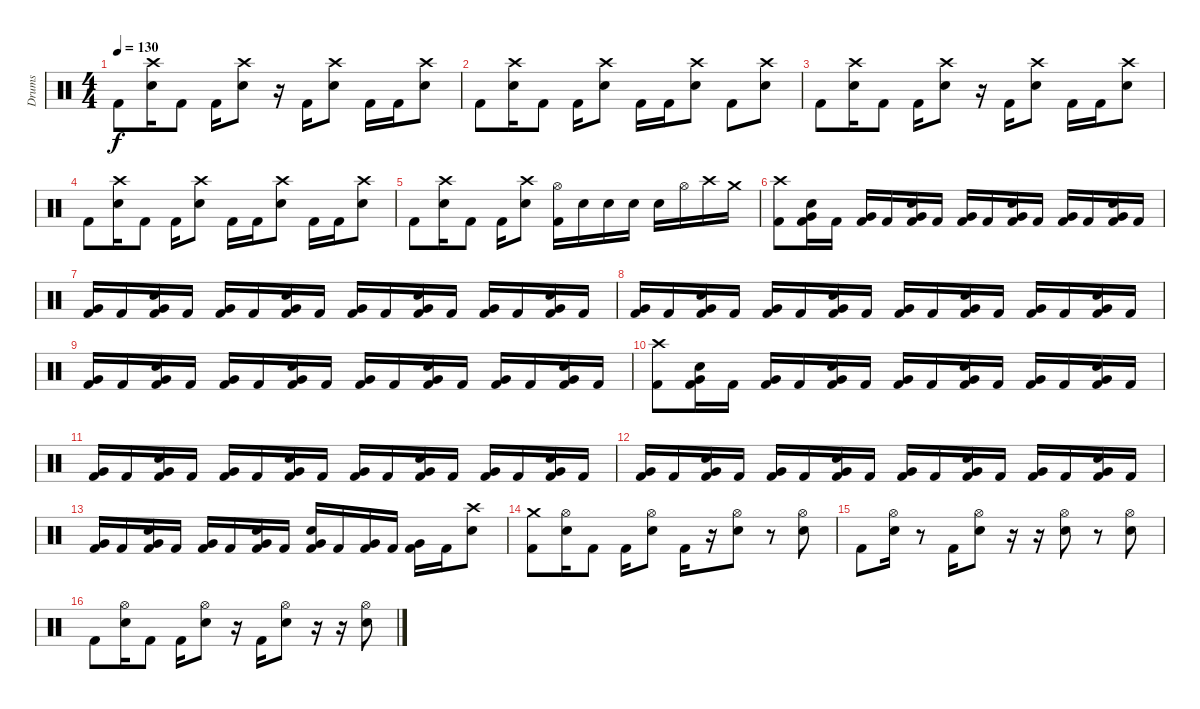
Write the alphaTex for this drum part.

\track ("Drums" "Drums") {instrument percussion}
\staff {score}
\articulation defaults
\ts (4 4)
\tempo 130
\clef neutral
\ks c "Kick (hit) 2".8{dy f}
("Crash high (hit)" "Electric Snare (hit)").16 "Kick (hit) 2".8 "Kick (hit) 2".16 ("Crash high (hit)" "Electric Snare (hit)").8 r.16 "Kick (hit) 2".16 ("Crash high (hit)" "Electric Snare (hit)").8 "Kick (hit) 2".16 "Kick (hit) 2".16 ("Crash high (hit)" "Electric Snare (hit)").8 |
"Kick (hit) 2".8 ("Crash high (hit)" "Electric Snare (hit)").16 "Kick (hit) 2".8 "Kick (hit) 2".16 ("Crash high (hit)" "Electric Snare (hit)").8 "Kick (hit) 2".16 "Kick (hit) 2".16 ("Crash high (hit)" "Electric Snare (hit)").8 "Kick (hit) 2".8 ("Crash high (hit)" "Electric Snare (hit)").8 |
"Kick (hit) 2".8 ("Crash high (hit)" "Electric Snare (hit)").16 "Kick (hit) 2".8 "Kick (hit) 2".16 ("Crash high (hit)" "Electric Snare (hit)").8 r.16 "Kick (hit) 2".16 ("Crash high (hit)" "Electric Snare (hit)").8 "Kick (hit) 2".16 "Kick (hit) 2".16 ("Crash high (hit)" "Electric Snare (hit)").8 |
"Kick (hit) 2".8 ("Crash high (hit)" "Electric Snare (hit)").16 "Kick (hit) 2".8 "Kick (hit) 2".16 ("Crash high (hit)" "Electric Snare (hit)").8 "Kick (hit) 2".16 "Kick (hit) 2".16 ("Crash high (hit)" "Electric Snare (hit)").8 "Kick (hit) 2".16 "Kick (hit) 2".16 ("Crash high (hit)" "Electric Snare (hit)").8 |
"Kick (hit) 2".8 ("Crash high (hit)" "Electric Snare (hit)").16 "Kick (hit) 2".8 "Kick (hit) 2".16 ("Crash high (hit)" "Electric Snare (hit)").8 ("Hi-Hat (open)" "Kick (hit) 2").16 "Electric Snare (hit)".16 "Electric Snare (hit)".16 "Electric Snare (hit)".16 "Electric Snare (hit)".16 "Hi-Hat (open)".16 "Crash high (hit)".16 "Crash medium (hit)".16 |
("Crash high (hit)" "Kick (hit) 2").8 ("Very Low Tom (hit)" "Electric Snare (hit)" "Kick (hit) 2").16 "Kick (hit) 2".16 ("Very Low Tom (hit)" "Kick (hit) 2").16 "Kick (hit) 2".16 ("Very Low Tom (hit)" "Electric Snare (hit)" "Kick (hit) 2").16 "Kick (hit) 2".16 ("Very Low Tom (hit)" "Kick (hit) 2").16 "Kick (hit) 2".16 ("Very Low Tom (hit)" "Electric Snare (hit)" "Kick (hit) 2").16 "Kick (hit) 2".16 ("Very Low Tom (hit)" "Kick (hit) 2").16 "Kick (hit) 2".16 ("Very Low Tom (hit)" "Electric Snare (hit)" "Kick (hit) 2").16 "Kick (hit) 2".16 |
("Very Low Tom (hit)" "Kick (hit) 2").16 "Kick (hit) 2".16 ("Very Low Tom (hit)" "Electric Snare (hit)" "Kick (hit) 2").16 "Kick (hit) 2".16 ("Very Low Tom (hit)" "Kick (hit) 2").16 "Kick (hit) 2".16 ("Very Low Tom (hit)" "Electric Snare (hit)" "Kick (hit) 2").16 "Kick (hit) 2".16 ("Very Low Tom (hit)" "Kick (hit) 2").16 "Kick (hit) 2".16 ("Very Low Tom (hit)" "Electric Snare (hit)" "Kick (hit) 2").16 "Kick (hit) 2".16 ("Very Low Tom (hit)" "Kick (hit) 2").16 "Kick (hit) 2".16 ("Very Low Tom (hit)" "Electric Snare (hit)" "Kick (hit) 2").16 "Kick (hit) 2".16 |
("Very Low Tom (hit)" "Kick (hit) 2").16 "Kick (hit) 2".16 ("Very Low Tom (hit)" "Electric Snare (hit)" "Kick (hit) 2").16 "Kick (hit) 2".16 ("Very Low Tom (hit)" "Kick (hit) 2").16 "Kick (hit) 2".16 ("Very Low Tom (hit)" "Electric Snare (hit)" "Kick (hit) 2").16 "Kick (hit) 2".16 ("Very Low Tom (hit)" "Kick (hit) 2").16 "Kick (hit) 2".16 ("Very Low Tom (hit)" "Electric Snare (hit)" "Kick (hit) 2").16 "Kick (hit) 2".16 ("Very Low Tom (hit)" "Kick (hit) 2").16 "Kick (hit) 2".16 ("Very Low Tom (hit)" "Electric Snare (hit)" "Kick (hit) 2").16 "Kick (hit) 2".16 |
("Very Low Tom (hit)" "Kick (hit) 2").16 "Kick (hit) 2".16 ("Very Low Tom (hit)" "Electric Snare (hit)" "Kick (hit) 2").16 "Kick (hit) 2".16 ("Very Low Tom (hit)" "Kick (hit) 2").16 "Kick (hit) 2".16 ("Very Low Tom (hit)" "Electric Snare (hit)" "Kick (hit) 2").16 "Kick (hit) 2".16 ("Very Low Tom (hit)" "Kick (hit) 2").16 "Kick (hit) 2".16 ("Very Low Tom (hit)" "Electric Snare (hit)" "Kick (hit) 2").16 "Kick (hit) 2".16 ("Very Low Tom (hit)" "Kick (hit) 2").16 "Kick (hit) 2".16 ("Very Low Tom (hit)" "Electric Snare (hit)" "Kick (hit) 2").16 "Kick (hit) 2".16 |
("Crash high (hit)" "Kick (hit) 2").8 ("Very Low Tom (hit)" "Electric Snare (hit)" "Kick (hit) 2").16 "Kick (hit) 2".16 ("Very Low Tom (hit)" "Kick (hit) 2").16 "Kick (hit) 2".16 ("Very Low Tom (hit)" "Electric Snare (hit)" "Kick (hit) 2").16 "Kick (hit) 2".16 ("Very Low Tom (hit)" "Kick (hit) 2").16 "Kick (hit) 2".16 ("Very Low Tom (hit)" "Electric Snare (hit)" "Kick (hit) 2").16 "Kick (hit) 2".16 ("Very Low Tom (hit)" "Kick (hit) 2").16 "Kick (hit) 2".16 ("Very Low Tom (hit)" "Electric Snare (hit)" "Kick (hit) 2").16 "Kick (hit) 2".16 |
("Very Low Tom (hit)" "Kick (hit) 2").16 "Kick (hit) 2".16 ("Very Low Tom (hit)" "Electric Snare (hit)" "Kick (hit) 2").16 "Kick (hit) 2".16 ("Very Low Tom (hit)" "Kick (hit) 2").16 "Kick (hit) 2".16 ("Very Low Tom (hit)" "Electric Snare (hit)" "Kick (hit) 2").16 "Kick (hit) 2".16 ("Very Low Tom (hit)" "Kick (hit) 2").16 "Kick (hit) 2".16 ("Very Low Tom (hit)" "Electric Snare (hit)" "Kick (hit) 2").16 "Kick (hit) 2".16 ("Very Low Tom (hit)" "Kick (hit) 2").16 "Kick (hit) 2".16 ("Very Low Tom (hit)" "Electric Snare (hit)" "Kick (hit) 2").16 "Kick (hit) 2".16 |
("Very Low Tom (hit)" "Kick (hit) 2").16 "Kick (hit) 2".16 ("Very Low Tom (hit)" "Electric Snare (hit)" "Kick (hit) 2").16 "Kick (hit) 2".16 ("Very Low Tom (hit)" "Kick (hit) 2").16 "Kick (hit) 2".16 ("Very Low Tom (hit)" "Electric Snare (hit)" "Kick (hit) 2").16 "Kick (hit) 2".16 ("Very Low Tom (hit)" "Kick (hit) 2").16 "Kick (hit) 2".16 ("Very Low Tom (hit)" "Electric Snare (hit)" "Kick (hit) 2").16 "Kick (hit) 2".16 ("Very Low Tom (hit)" "Kick (hit) 2").16 "Kick (hit) 2".16 ("Very Low Tom (hit)" "Electric Snare (hit)" "Kick (hit) 2").16 "Kick (hit) 2".16 |
("Very Low Tom (hit)" "Kick (hit) 2").16 "Kick (hit) 2".16 ("Very Low Tom (hit)" "Electric Snare (hit)" "Kick (hit) 2").16 "Kick (hit) 2".16 ("Very Low Tom (hit)" "Kick (hit) 2").16 "Kick (hit) 2".16 ("Very Low Tom (hit)" "Electric Snare (hit)" "Kick (hit) 2").16 "Kick (hit) 2".16 ("Very Low Tom (hit)" "Electric Snare (hit)" "Kick (hit) 2").16 "Kick (hit) 2".16 ("Very Low Tom (hit)" "Kick (hit) 2").16 "Kick (hit) 2".16 ("Very Low Tom (hit)" "Kick (hit) 2").16 "Kick (hit) 2".16 ("Crash high (hit)" "Electric Snare (hit)").8 |
("Crash medium (hit)" "Kick (hit) 2").8 ("Hi-Hat (open)" "Electric Snare (hit)").16 "Kick (hit) 2".8 "Kick (hit) 2".16 ("Hi-Hat (open)" "Electric Snare (hit)").8 "Kick (hit) 2".16 r.16 ("Hi-Hat (open)" "Electric Snare (hit)").8 r.8 ("Hi-Hat (open)" "Electric Snare (hit)").8 |
"Kick (hit) 2".8 ("Hi-Hat (open)" "Electric Snare (hit)").16 r.8 "Kick (hit) 2".16 ("Hi-Hat (open)" "Electric Snare (hit)").8 r.16 r.16 ("Hi-Hat (open)" "Electric Snare (hit)").8 r.8 ("Hi-Hat (open)" "Electric Snare (hit)").8 |
"Kick (hit) 2".8 ("Hi-Hat (open)" "Electric Snare (hit)").16 "Kick (hit) 2".8 "Kick (hit) 2".16 ("Hi-Hat (open)" "Electric Snare (hit)").8 r.16 "Kick (hit) 2".16 ("Hi-Hat (open)" "Electric Snare (hit)").8 r.16 r.16 ("Hi-Hat (open)" "Electric Snare (hit)").8
